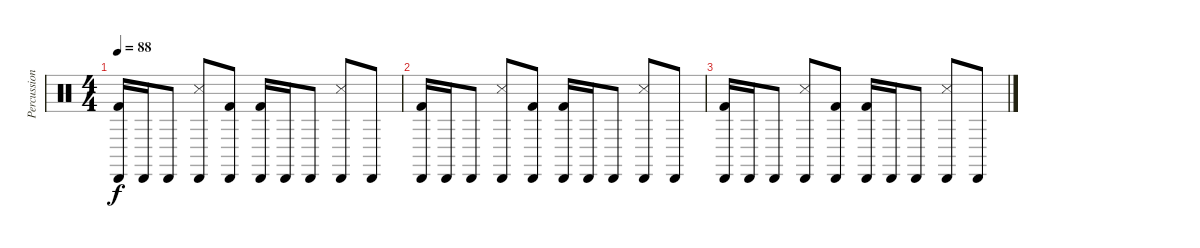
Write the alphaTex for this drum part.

\track ("Percussions" "Percussion") {instrument percussion}
\staff {score}
\articulation defaults
\ts (4 4)
\tempo 88
\clef neutral
\ks c
("Cabasa (hit)" "Kick (hit) 2").16{dy f volume 9} "Cabasa (hit)".16 "Cabasa (hit)".8 ("Cabasa (hit)" "Snare (side stick) 3").8 ("Cabasa (hit)" "Kick (hit) 2").8{volume 8} ("Cabasa (hit)" "Kick (hit) 2").16 "Cabasa (hit)".16 "Cabasa (hit)".8 ("Cabasa (hit)" "Snare (side stick) 3").8 "Cabasa (hit)".8 |
("Cabasa (hit)" "Kick (hit) 2").16{volume 7} "Cabasa (hit)".16 "Cabasa (hit)".8 ("Cabasa (hit)" "Snare (side stick) 3").8 ("Cabasa (hit)" "Kick (hit) 2").8{volume 6} ("Cabasa (hit)" "Kick (hit) 2").16 "Cabasa (hit)".16 "Cabasa (hit)".8 ("Cabasa (hit)" "Snare (side stick) 3").8 "Cabasa (hit)".8 |
("Cabasa (hit)" "Kick (hit) 2").16{volume 5} "Cabasa (hit)".16 "Cabasa (hit)".8 ("Cabasa (hit)" "Snare (side stick) 3").8 ("Cabasa (hit)" "Kick (hit) 2").8{volume 4} ("Cabasa (hit)" "Kick (hit) 2").16 "Cabasa (hit)".16 "Cabasa (hit)".8 ("Cabasa (hit)" "Snare (side stick) 3").8 "Cabasa (hit)".8
